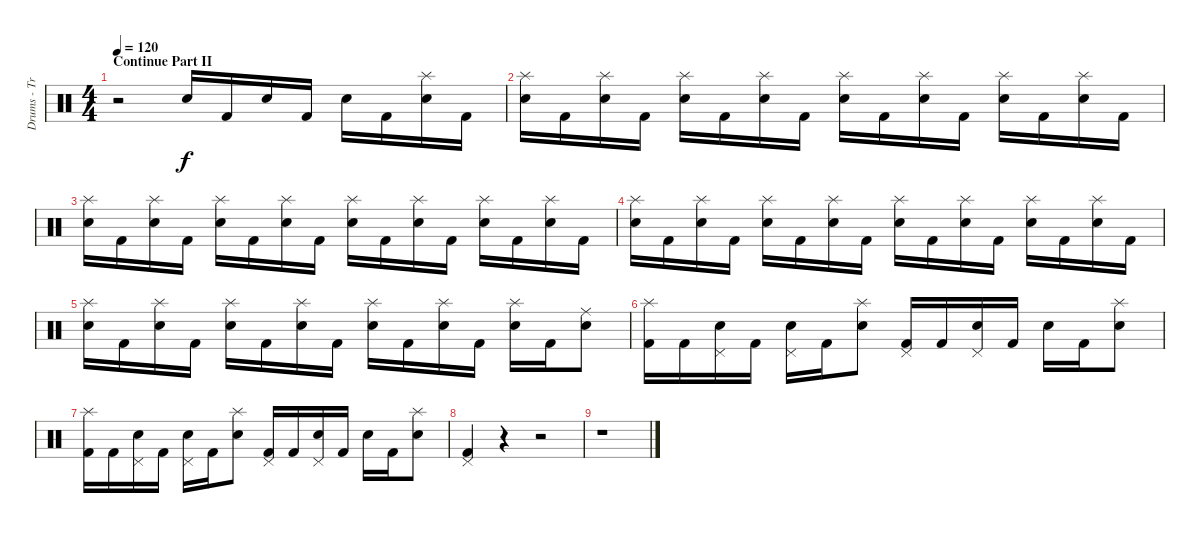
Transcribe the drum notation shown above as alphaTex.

\track ("Drums - Travis Barker" "Drums - Tr") {instrument percussion}
\staff {score}
\articulation defaults
\ts (4 4)
\section ("" "Continue Part II")
\tempo 120
\clef neutral
\ks c
r.2{dy mp} "Electric Snare (hit)".16{dy f} "Kick (hit) 2".16 "Electric Snare (hit)".16 "Kick (hit) 2".16 "Electric Snare (hit)".16 "Kick (hit) 2".16 ("Splash (hit)" "Electric Snare (hit)").16 "Kick (hit) 2".16 |
("Splash (hit)" "Electric Snare (hit)").16 "Kick (hit) 2".16 ("Splash (hit)" "Electric Snare (hit)").16 "Kick (hit) 2".16 ("Splash (hit)" "Electric Snare (hit)").16 "Kick (hit) 2".16 ("Splash (hit)" "Electric Snare (hit)").16 "Kick (hit) 2".16 ("Splash (hit)" "Electric Snare (hit)").16 "Kick (hit) 2".16 ("Splash (hit)" "Electric Snare (hit)").16 "Kick (hit) 2".16 ("Splash (hit)" "Electric Snare (hit)").16 "Kick (hit) 2".16 ("Splash (hit)" "Electric Snare (hit)").16 "Kick (hit) 2".16 |
("Splash (hit)" "Electric Snare (hit)").16 "Kick (hit) 2".16 ("Splash (hit)" "Electric Snare (hit)").16 "Kick (hit) 2".16 ("Splash (hit)" "Electric Snare (hit)").16 "Kick (hit) 2".16 ("Splash (hit)" "Electric Snare (hit)").16 "Kick (hit) 2".16 ("Splash (hit)" "Electric Snare (hit)").16 "Kick (hit) 2".16 ("Splash (hit)" "Electric Snare (hit)").16 "Kick (hit) 2".16 ("Splash (hit)" "Electric Snare (hit)").16 "Kick (hit) 2".16 ("Splash (hit)" "Electric Snare (hit)").16 "Kick (hit) 2".16 |
("Splash (hit)" "Electric Snare (hit)").16 "Kick (hit) 2".16 ("Splash (hit)" "Electric Snare (hit)").16 "Kick (hit) 2".16 ("Splash (hit)" "Electric Snare (hit)").16 "Kick (hit) 2".16 ("Splash (hit)" "Electric Snare (hit)").16 "Kick (hit) 2".16 ("Splash (hit)" "Electric Snare (hit)").16 "Kick (hit) 2".16 ("Splash (hit)" "Electric Snare (hit)").16 "Kick (hit) 2".16 ("Splash (hit)" "Electric Snare (hit)").16 "Kick (hit) 2".16 ("Splash (hit)" "Electric Snare (hit)").16 "Kick (hit) 2".16 |
("Splash (hit)" "Electric Snare (hit)").16 "Kick (hit) 2".16 ("Splash (hit)" "Electric Snare (hit)").16 "Kick (hit) 2".16 ("Splash (hit)" "Electric Snare (hit)").16 "Kick (hit) 2".16 ("Splash (hit)" "Electric Snare (hit)").16 "Kick (hit) 2".16 ("Splash (hit)" "Electric Snare (hit)").16 "Kick (hit) 2".16 ("Splash (hit)" "Electric Snare (hit)").16 "Kick (hit) 2".16 ("Splash (hit)" "Electric Snare (hit)").16 "Kick (hit) 2".16 ("Ride (middle)" "Electric Snare (hit)").8 |
\section ("" "")
("Splash (hit)" "Kick (hit) 2").16 "Kick (hit) 2".16 ("Pedal Hi-Hat (hit)" "Electric Snare (hit)").16 "Kick (hit) 2".16 ("Pedal Hi-Hat (hit)" "Electric Snare (hit)").16 "Kick (hit) 2".16 ("Splash (hit)" "Electric Snare (hit)").8 ("Pedal Hi-Hat (hit)" "Kick (hit) 2").16 "Kick (hit) 2".16 ("Pedal Hi-Hat (hit)" "Electric Snare (hit)").16 "Kick (hit) 2".16 "Electric Snare (hit)".16 "Kick (hit) 2".16 ("Splash (hit)" "Electric Snare (hit)").8 |
\section ("" "")
("Splash (hit)" "Kick (hit) 2").16 "Kick (hit) 2".16 ("Pedal Hi-Hat (hit)" "Electric Snare (hit)").16 "Kick (hit) 2".16 ("Pedal Hi-Hat (hit)" "Electric Snare (hit)").16 "Kick (hit) 2".16 ("Splash (hit)" "Electric Snare (hit)").8 ("Pedal Hi-Hat (hit)" "Kick (hit) 2").16 "Kick (hit) 2".16 ("Pedal Hi-Hat (hit)" "Electric Snare (hit)").16 "Kick (hit) 2".16 "Electric Snare (hit)".16 "Kick (hit) 2".16 ("Splash (hit)" "Electric Snare (hit)").8 |
\section ("" "")
("Pedal Hi-Hat (hit)" "Kick (hit) 2").4 r.4 r.2 |
\section ("" "")
r.1
